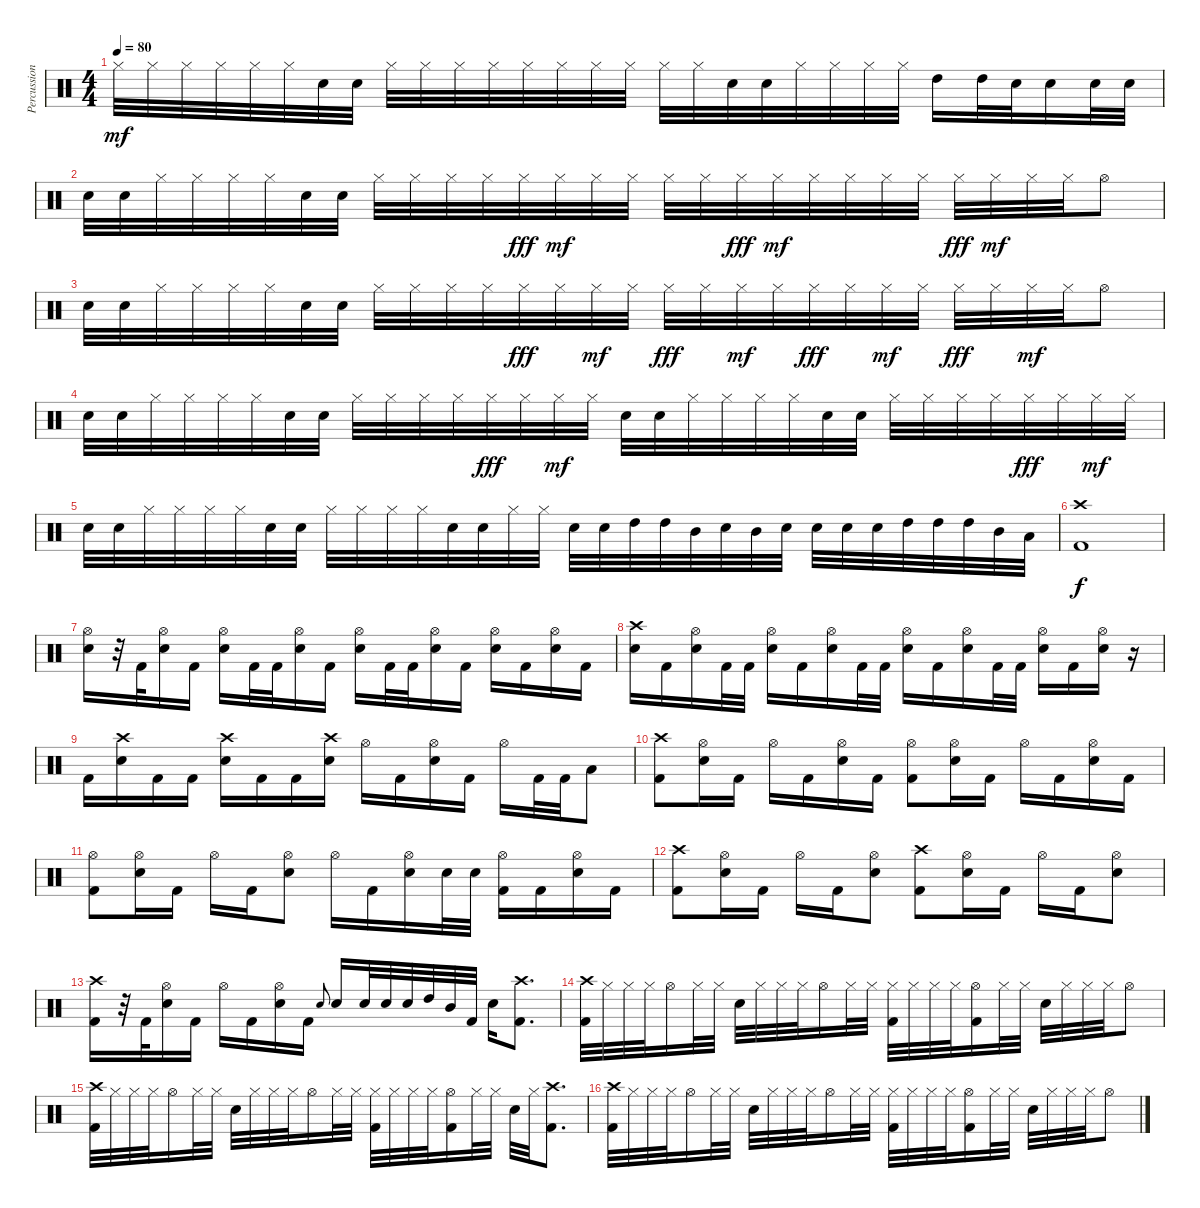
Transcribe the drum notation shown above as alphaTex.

\track ("Percussion" "Percussion") {instrument percussion}
\staff {score}
\articulation defaults
\ts (4 4)
\tempo 80
\clef neutral
\ks c "Hi-Hat (closed)".32{dy mf} "Hi-Hat (closed)".32 "Hi-Hat (closed)".32 "Hi-Hat (closed)".32 "Hi-Hat (closed)".32 "Hi-Hat (closed)".32 "Snare (hit) 2".32 "Snare (hit) 2".32 "Hi-Hat (closed)".32 "Hi-Hat (closed)".32 "Hi-Hat (closed)".32 "Hi-Hat (closed)".32 "Hi-Hat (closed)".32 "Hi-Hat (closed)".32 "Hi-Hat (closed)".32 "Hi-Hat (closed)".32 "Hi-Hat (closed)".32 "Hi-Hat (closed)".32 "Snare (hit) 2".32 "Snare (hit) 2".32 "Hi-Hat (closed)".32 "Hi-Hat (closed)".32 "Hi-Hat (closed)".32 "Hi-Hat (closed)".32 "High Tom (hit)".16 "High Tom (hit)".32 "Snare (hit) 2".32 "Snare (hit) 2".16 "Snare (hit) 2".32 "Snare (hit) 2".32
|
"Snare (hit) 2".32 "Snare (hit) 2".32 "Hi-Hat (closed)".32 "Hi-Hat (closed)".32 "Hi-Hat (closed)".32 "Hi-Hat (closed)".32 "Snare (hit) 2".32 "Snare (hit) 2".32 "Hi-Hat (closed)".32 "Hi-Hat (closed)".32 "Hi-Hat (closed)".32 "Hi-Hat (closed)".32 "Hi-Hat (closed)".32{dy fff} "Hi-Hat (closed)".32{dy mf} "Hi-Hat (closed)".32 "Hi-Hat (closed)".32 "Hi-Hat (closed)".32 "Hi-Hat (closed)".32 "Hi-Hat (closed)".32{dy fff} "Hi-Hat (closed)".32{dy mf} "Hi-Hat (closed)".32 "Hi-Hat (closed)".32 "Hi-Hat (closed)".32 "Hi-Hat (closed)".32 "Hi-Hat (closed)".32{dy fff} "Hi-Hat (closed)".32{dy mf} "Hi-Hat (closed)".32 "Hi-Hat (closed)".32 "Hi-Hat (open)".8 |
"Snare (hit) 2".32 "Snare (hit) 2".32 "Hi-Hat (closed)".32 "Hi-Hat (closed)".32 "Hi-Hat (closed)".32 "Hi-Hat (closed)".32 "Snare (hit) 2".32 "Snare (hit) 2".32 "Hi-Hat (closed)".32 "Hi-Hat (closed)".32 "Hi-Hat (closed)".32 "Hi-Hat (closed)".32 "Hi-Hat (closed)".32{dy fff} "Hi-Hat (closed)".32 "Hi-Hat (closed)".32{dy mf} "Hi-Hat (closed)".32 "Hi-Hat (closed)".32{dy fff} "Hi-Hat (closed)".32 "Hi-Hat (closed)".32{dy mf} "Hi-Hat (closed)".32 "Hi-Hat (closed)".32{dy fff} "Hi-Hat (closed)".32 "Hi-Hat (closed)".32{dy mf} "Hi-Hat (closed)".32 "Hi-Hat (closed)".32{dy fff} "Hi-Hat (closed)".32 "Hi-Hat (closed)".32{dy mf} "Hi-Hat (closed)".32 "Hi-Hat (open)".8 |
"Snare (hit) 2".32 "Snare (hit) 2".32 "Hi-Hat (closed)".32 "Hi-Hat (closed)".32 "Hi-Hat (closed)".32 "Hi-Hat (closed)".32 "Snare (hit) 2".32 "Snare (hit) 2".32 "Hi-Hat (closed)".32 "Hi-Hat (closed)".32 "Hi-Hat (closed)".32 "Hi-Hat (closed)".32 "Hi-Hat (closed)".32{dy fff} "Hi-Hat (closed)".32 "Hi-Hat (closed)".32{dy mf} "Hi-Hat (closed)".32 "Snare (hit) 2".32 "Snare (hit) 2".32 "Hi-Hat (closed)".32 "Hi-Hat (closed)".32 "Hi-Hat (closed)".32 "Hi-Hat (closed)".32 "Snare (hit) 2".32 "Snare (hit) 2".32 "Hi-Hat (closed)".32 "Hi-Hat (closed)".32 "Hi-Hat (closed)".32 "Hi-Hat (closed)".32 "Hi-Hat (closed)".32{dy fff} "Hi-Hat (closed)".32 "Hi-Hat (closed)".32{dy mf} "Hi-Hat (closed)".32 |
"Snare (hit) 2".32 "Snare (hit) 2".32 "Hi-Hat (closed)".32 "Hi-Hat (closed)".32 "Hi-Hat (closed)".32 "Hi-Hat (closed)".32 "Snare (hit) 2".32 "Snare (hit) 2".32 "Hi-Hat (closed)".32 "Hi-Hat (closed)".32 "Hi-Hat (closed)".32 "Hi-Hat (closed)".32 "Snare (hit) 2".32 "Snare (hit) 2".32 "Hi-Hat (closed)".32 "Hi-Hat (closed)".32 "Snare (hit) 2".32 "Snare (hit) 2".32 "High Tom (hit)".32 "High Tom (hit)".32 "Mid Tom (hit)".32 "Snare (hit) 2".32 "Mid Tom (hit)".32 "Snare (hit) 2".32 "Snare (hit) 2".32 "Snare (hit) 2".32 "Snare (hit) 2".32 "High Tom (hit)".32 "High Tom (hit)".32 "High Tom (hit)".32 "Mid Tom (hit)".32 "Low Tom (hit)".32 |
("Crash high (hit)" "Kick (hit) 2").1{dy f} |
("Hi-Hat (open)" "Snare (hit) 2").16 r.32 "Kick (hit) 2".32 ("Hi-Hat (open)" "Snare (hit) 2").16 "Kick (hit) 2".16 ("Hi-Hat (open)" "Snare (hit) 2").16 "Kick (hit) 2".32 "Kick (hit) 2".32 ("Hi-Hat (open)" "Snare (hit) 2").16 "Kick (hit) 2".16 ("Hi-Hat (open)" "Snare (hit) 2").16 "Kick (hit) 2".32 "Kick (hit) 2".32 ("Hi-Hat (open)" "Snare (hit) 2").16 "Kick (hit) 2".16 ("Hi-Hat (open)" "Snare (hit) 2").16 "Kick (hit) 2".16 ("Hi-Hat (open)" "Snare (hit) 2").16 "Kick (hit) 2".16 |
("Crash high (hit)" "Snare (hit) 2").16 "Kick (hit) 2".16 ("Hi-Hat (open)" "Snare (hit) 2").16 "Kick (hit) 2".32 "Kick (hit) 2".32 ("Hi-Hat (open)" "Snare (hit) 2").16 "Kick (hit) 2".16 ("Hi-Hat (open)" "Snare (hit) 2").16 "Kick (hit) 2".32 "Kick (hit) 2".32 ("Hi-Hat (open)" "Snare (hit) 2").16 "Kick (hit) 2".16 ("Hi-Hat (open)" "Snare (hit) 2").16 "Kick (hit) 2".32 "Kick (hit) 2".32 ("Hi-Hat (open)" "Snare (hit) 2").16 "Kick (hit) 2".16 ("Hi-Hat (open)" "Snare (hit) 2").16 r.16 |
"Kick (hit) 2".16 ("Crash high (hit)" "Snare (hit) 2").16 "Kick (hit) 2".16 "Kick (hit) 2".16 ("Crash high (hit)" "Snare (hit) 2").16 "Kick (hit) 2".16 "Kick (hit) 2".16 ("Crash high (hit)" "Snare (hit) 2").16 "Hi-Hat (open)".16 "Kick (hit) 2".16 ("Hi-Hat (open)" "Snare (hit) 2").16 "Kick (hit) 2".16 "Hi-Hat (open)".16 "Kick (hit) 2".32 "Kick (hit) 2".32 "Low Tom (hit)".8 |
("Crash high (hit)" "Kick (hit) 2").8 ("Hi-Hat (open)" "Snare (hit) 2").16 "Kick (hit) 2".16 "Hi-Hat (open)".16 "Kick (hit) 2".16 ("Hi-Hat (open)" "Snare (hit) 2").16 "Kick (hit) 2".16 ("Hi-Hat (open)" "Kick (hit) 2").8 ("Hi-Hat (open)" "Snare (hit) 2").16 "Kick (hit) 2".16 "Hi-Hat (open)".16 "Kick (hit) 2".16 ("Hi-Hat (open)" "Snare (hit) 2").16 "Kick (hit) 2".16 |
("Hi-Hat (open)" "Kick (hit) 2").8 ("Hi-Hat (open)" "Snare (hit) 2").16 "Kick (hit) 2".16 "Hi-Hat (open)".16 "Kick (hit) 2".16 ("Hi-Hat (open)" "Snare (hit) 2").8 "Hi-Hat (open)".16 "Kick (hit) 2".16 ("Hi-Hat (open)" "Snare (hit) 2").16 "Snare (hit) 2".32 "Snare (hit) 2".32 ("Hi-Hat (open)" "Kick (hit) 2").16 "Kick (hit) 2".16 ("Hi-Hat (open)" "Snare (hit) 2").16 "Kick (hit) 2".16 |
("Crash high (hit)" "Kick (hit) 2").8 ("Hi-Hat (open)" "Snare (hit) 2").16 "Kick (hit) 2".16 "Hi-Hat (open)".16 "Kick (hit) 2".16 ("Hi-Hat (open)" "Snare (hit) 2").8 ("Crash high (hit)" "Kick (hit) 2").8 ("Hi-Hat (open)" "Snare (hit) 2").16 "Kick (hit) 2".16 "Hi-Hat (open)".16 "Kick (hit) 2".16 ("Hi-Hat (open)" "Snare (hit) 2").8 |
("Crash high (hit)" "Kick (hit) 2").16 r.32 "Kick (hit) 2".32 ("Hi-Hat (open)" "Snare (hit) 2").16 "Kick (hit) 2".16 "Hi-Hat (open)".16 "Kick (hit) 2".16 ("Hi-Hat (open)" "Snare (hit) 2").16 "Kick (hit) 2".16 "Snare (hit) 2".8{gr onbeat} "Snare (hit) 2".16 "Snare (hit) 2".32 "Snare (hit) 2".32 "Snare (hit) 2".32 "High Tom (hit)".32 "Mid Tom (hit)".32 "Kick (hit) 2".32 "Snare (hit) 2".16 ("Crash high (hit)" "Kick (hit) 2").8{d} |
("Crash high (hit)" "Kick (hit) 2").32 "Hi-Hat (closed)".32 "Hi-Hat (closed)".32 "Hi-Hat (closed)".32 "Hi-Hat (open)".16 "Hi-Hat (closed)".32 "Hi-Hat (closed)".32 "Snare (hit) 2".32 "Hi-Hat (closed)".32 "Hi-Hat (closed)".32 "Hi-Hat (closed)".32 "Hi-Hat (open)".16 "Hi-Hat (closed)".32 "Hi-Hat (closed)".32 ("Hi-Hat (closed)" "Kick (hit) 2").32 "Hi-Hat (closed)".32 "Hi-Hat (closed)".32 "Hi-Hat (closed)".32 ("Hi-Hat (open)" "Kick (hit) 2").16 "Hi-Hat (closed)".32 "Hi-Hat (closed)".32 "Snare (hit) 2".32 "Hi-Hat (closed)".32 "Hi-Hat (closed)".32 "Hi-Hat (closed)".32 "Hi-Hat (open)".8 |
("Crash high (hit)" "Kick (hit) 2").32 "Hi-Hat (closed)".32 "Hi-Hat (closed)".32 "Hi-Hat (closed)".32 "Hi-Hat (open)".16 "Hi-Hat (closed)".32 "Hi-Hat (closed)".32 "Snare (hit) 2".32 "Hi-Hat (closed)".32 "Hi-Hat (closed)".32 "Hi-Hat (closed)".32 "Hi-Hat (open)".16 "Hi-Hat (closed)".32 "Hi-Hat (closed)".32 ("Hi-Hat (closed)" "Kick (hit) 2").32 "Hi-Hat (closed)".32 "Hi-Hat (closed)".32 "Hi-Hat (closed)".32 ("Hi-Hat (open)" "Kick (hit) 2").16 "Hi-Hat (closed)".32 "Hi-Hat (closed)".32 "Snare (hit) 2".32 "Hi-Hat (closed)".32 ("Crash high (hit)" "Kick (hit) 2").8{d} |
("Crash high (hit)" "Kick (hit) 2").32 "Hi-Hat (closed)".32 "Hi-Hat (closed)".32 "Hi-Hat (closed)".32 "Hi-Hat (open)".16 "Hi-Hat (closed)".32 "Hi-Hat (closed)".32 "Snare (hit) 2".32 "Hi-Hat (closed)".32 "Hi-Hat (closed)".32 "Hi-Hat (closed)".32 "Hi-Hat (open)".16 "Hi-Hat (closed)".32 "Hi-Hat (closed)".32 ("Hi-Hat (closed)" "Kick (hit) 2").32 "Hi-Hat (closed)".32 "Hi-Hat (closed)".32 "Hi-Hat (closed)".32 ("Hi-Hat (open)" "Kick (hit) 2").16 "Hi-Hat (closed)".32 "Hi-Hat (closed)".32 "Snare (hit) 2".32 "Hi-Hat (closed)".32 "Hi-Hat (closed)".32 "Hi-Hat (closed)".32 "Hi-Hat (open)".8
